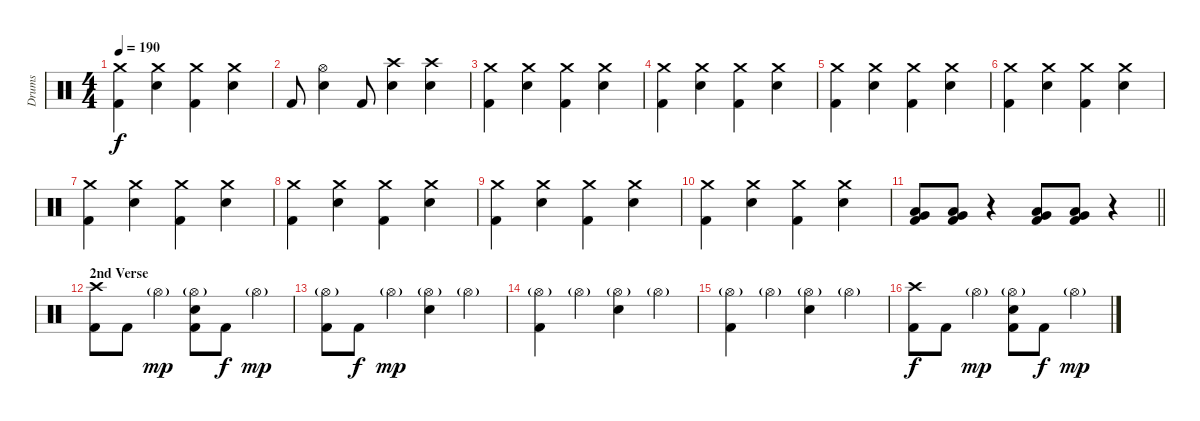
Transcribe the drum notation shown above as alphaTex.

\track ("Drums" "Drums") {instrument percussion}
\staff {score}
\articulation defaults
\ts (4 4)
\tempo 190
\clef neutral
\ks c
("Crash medium (hit)" "Kick (hit) 2").4{dy f} ("Crash medium (hit)" "Electric Snare (hit)").4 ("Crash medium (hit)" "Kick (hit) 2").4 ("Crash medium (hit)" "Electric Snare (hit)").4 |
"Kick (hit) 2".8 ("Hi-Hat (open)" "Electric Snare (hit)").4 "Kick (hit) 2".8 ("Crash high (hit)" "Electric Snare (hit)").4 ("Crash high (hit)" "Electric Snare (hit)").4 |
("Crash medium (hit)" "Kick (hit) 2").4 ("Crash medium (hit)" "Electric Snare (hit)").4 ("Crash medium (hit)" "Kick (hit) 2").4 ("Crash medium (hit)" "Electric Snare (hit)").4 |
("Crash medium (hit)" "Kick (hit) 2").4 ("Crash medium (hit)" "Electric Snare (hit)").4 ("Crash medium (hit)" "Kick (hit) 2").4 ("Crash medium (hit)" "Electric Snare (hit)").4 |
("Crash medium (hit)" "Kick (hit) 2").4 ("Crash medium (hit)" "Electric Snare (hit)").4 ("Crash medium (hit)" "Kick (hit) 2").4 ("Crash medium (hit)" "Electric Snare (hit)").4 |
("Crash medium (hit)" "Kick (hit) 2").4 ("Crash medium (hit)" "Electric Snare (hit)").4 ("Crash medium (hit)" "Kick (hit) 2").4 ("Crash medium (hit)" "Electric Snare (hit)").4 |
("Crash medium (hit)" "Kick (hit) 2").4 ("Crash medium (hit)" "Electric Snare (hit)").4 ("Crash medium (hit)" "Kick (hit) 2").4 ("Crash medium (hit)" "Electric Snare (hit)").4 |
("Crash medium (hit)" "Kick (hit) 2").4 ("Crash medium (hit)" "Electric Snare (hit)").4 ("Crash medium (hit)" "Kick (hit) 2").4 ("Crash medium (hit)" "Electric Snare (hit)").4 |
("Crash medium (hit)" "Kick (hit) 2").4 ("Crash medium (hit)" "Electric Snare (hit)").4 ("Crash medium (hit)" "Kick (hit) 2").4 ("Crash medium (hit)" "Electric Snare (hit)").4 |
("Crash medium (hit)" "Kick (hit) 2").4 ("Crash medium (hit)" "Electric Snare (hit)").4 ("Crash medium (hit)" "Kick (hit) 2").4 ("Crash medium (hit)" "Electric Snare (hit)").4 |
\barLineRight lightlight
("Very Low Tom (hit)" "Low Floor Tom (hit)" "Kick (hit) 2").8 ("Very Low Tom (hit)" "Low Floor Tom (hit)" "Kick (hit) 2").8 r.4 ("Very Low Tom (hit)" "Low Floor Tom (hit)" "Kick (hit) 2").8 ("Very Low Tom (hit)" "Low Floor Tom (hit)" "Kick (hit) 2").8 r.4 |
\section ("" "2nd Verse")
("Crash high (hit)" "Kick (hit) 2").8 "Kick (hit) 2".8 "Hi-Hat (open)"{g}.4{dy mp} ("Hi-Hat (open)"{g} "Electric Snare (hit)" "Kick (hit) 2").8 "Kick (hit) 2".8{dy f} "Hi-Hat (open)"{g}.4{dy mp} |
("Hi-Hat (open)"{g} "Kick (hit) 2").8 "Kick (hit) 2".8{dy f} "Hi-Hat (open)"{g}.4{dy mp} ("Hi-Hat (open)"{g} "Electric Snare (hit)").4 "Hi-Hat (open)"{g}.4 |
("Hi-Hat (open)"{g} "Kick (hit) 2").4 "Hi-Hat (open)"{g}.4 ("Hi-Hat (open)"{g} "Electric Snare (hit)").4 "Hi-Hat (open)"{g}.4 |
("Hi-Hat (open)"{g} "Kick (hit) 2").4 "Hi-Hat (open)"{g}.4 ("Hi-Hat (open)"{g} "Electric Snare (hit)").4 "Hi-Hat (open)"{g}.4 |
("Crash high (hit)" "Kick (hit) 2").8{dy f} "Kick (hit) 2".8 "Hi-Hat (open)"{g}.4{dy mp} ("Hi-Hat (open)"{g} "Electric Snare (hit)" "Kick (hit) 2").8 "Kick (hit) 2".8{dy f} "Hi-Hat (open)"{g}.4{dy mp}
